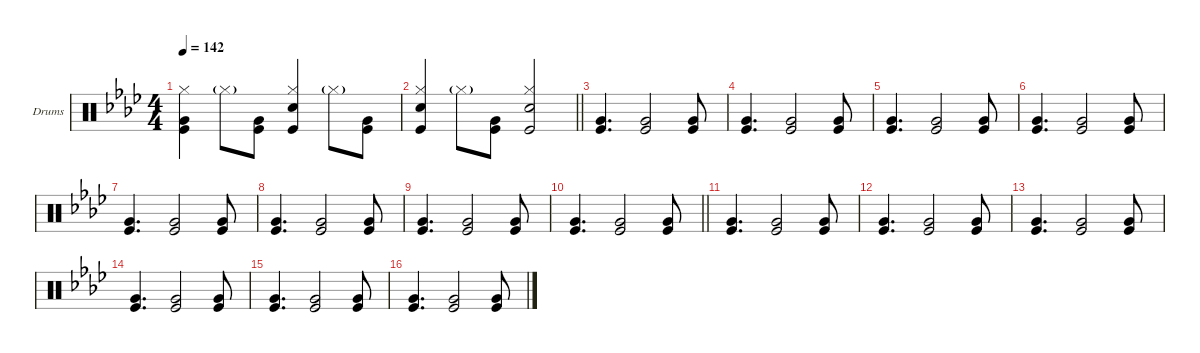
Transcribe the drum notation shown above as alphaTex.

\defaultSystemsLayout 4
\hideDynamics
\bracketExtendMode groupsimilarinstruments
\firstSystemTrackNameOrientation horizontal
\otherSystemsTrackNameOrientation horizontal
\track ("Drumkit" "Drums") {multiBarRest instrument percussion}
\staff {score}
\articulation defaults
\ts (4 4)
\tempo 142
\clef neutral
\ks ab
("Very Low Tom (hit)" "Kick (hit)" "Hi-Hat (closed)").4{dy fff} "Hi-Hat (closed)"{g}.8 ("Very Low Tom (hit)" "Kick (hit)").8 ("Snare (hit) 2" "Kick (hit)" "Hi-Hat (closed)").4 "Hi-Hat (closed)"{g}.8 ("Very Low Tom (hit)" "Kick (hit)").8 |
\barLineRight lightlight
("Snare (hit) 2" "Kick (hit)" "Hi-Hat (closed)").4 "Hi-Hat (closed)"{g}.8 ("Very Low Tom (hit)" "Kick (hit)").8 ("Snare (hit) 2" "Kick (hit)" "Hi-Hat (closed)").2 |
("Very Low Tom (hit)" "Kick (hit)").4{d} ("Kick (hit)" "Very Low Tom (hit)").2 ("Very Low Tom (hit)" "Kick (hit)").8 |
("Very Low Tom (hit)" "Kick (hit)").4{d} ("Kick (hit)" "Very Low Tom (hit)").2 ("Very Low Tom (hit)" "Kick (hit)").8 |
("Very Low Tom (hit)" "Kick (hit)").4{d} ("Kick (hit)" "Very Low Tom (hit)").2 ("Very Low Tom (hit)" "Kick (hit)").8 |
("Very Low Tom (hit)" "Kick (hit)").4{d} ("Kick (hit)" "Very Low Tom (hit)").2 ("Very Low Tom (hit)" "Kick (hit)").8 |
("Very Low Tom (hit)" "Kick (hit)").4{d} ("Kick (hit)" "Very Low Tom (hit)").2 ("Very Low Tom (hit)" "Kick (hit)").8 |
("Very Low Tom (hit)" "Kick (hit)").4{d} ("Kick (hit)" "Very Low Tom (hit)").2 ("Very Low Tom (hit)" "Kick (hit)").8 |
("Very Low Tom (hit)" "Kick (hit)").4{d} ("Kick (hit)" "Very Low Tom (hit)").2 ("Very Low Tom (hit)" "Kick (hit)").8 |
\barLineRight lightlight
("Very Low Tom (hit)" "Kick (hit)").4{d} ("Kick (hit)" "Very Low Tom (hit)").2 ("Very Low Tom (hit)" "Kick (hit)").8 |
("Very Low Tom (hit)" "Kick (hit)").4{d} ("Kick (hit)" "Very Low Tom (hit)").2 ("Very Low Tom (hit)" "Kick (hit)").8 |
("Very Low Tom (hit)" "Kick (hit)").4{d} ("Kick (hit)" "Very Low Tom (hit)").2 ("Very Low Tom (hit)" "Kick (hit)").8 |
("Very Low Tom (hit)" "Kick (hit)").4{d} ("Kick (hit)" "Very Low Tom (hit)").2 ("Very Low Tom (hit)" "Kick (hit)").8 |
("Very Low Tom (hit)" "Kick (hit)").4{d} ("Kick (hit)" "Very Low Tom (hit)").2 ("Very Low Tom (hit)" "Kick (hit)").8 |
("Very Low Tom (hit)" "Kick (hit)").4{d} ("Kick (hit)" "Very Low Tom (hit)").2 ("Very Low Tom (hit)" "Kick (hit)").8 |
("Very Low Tom (hit)" "Kick (hit)").4{d} ("Kick (hit)" "Very Low Tom (hit)").2 ("Very Low Tom (hit)" "Kick (hit)").8
